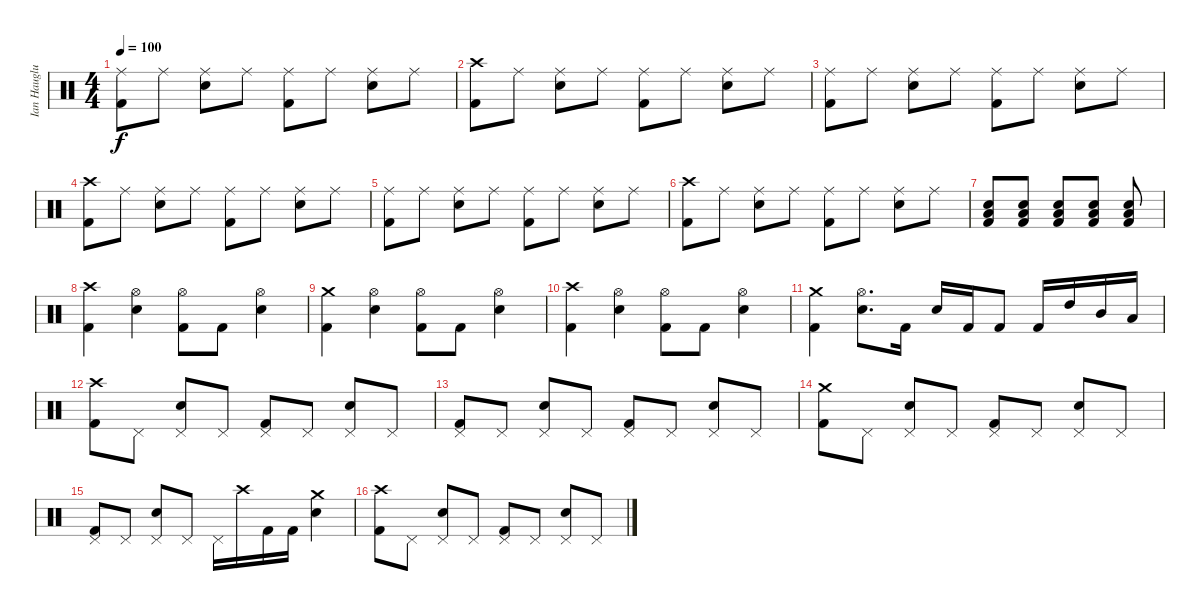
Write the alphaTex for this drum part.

\track ("Ian Hauglund" "Ian Hauglu") {instrument percussion}
\staff {score}
\articulation defaults
\ts (4 4)
\tempo 100
\clef neutral
\ks c
("Kick (hit) 2" "Ride (middle)").8{dy f} "Ride (middle)".8 ("Electric Snare (hit)" "Ride (middle)").8 "Ride (middle)".8 ("Kick (hit) 2" "Ride (middle)").8 "Ride (middle)".8 ("Electric Snare (hit)" "Ride (middle)").8 "Ride (middle)".8 |
("Kick (hit) 2" "Crash high (hit)").8 "Ride (middle)".8 ("Electric Snare (hit)" "Ride (middle)").8 "Ride (middle)".8 ("Kick (hit) 2" "Ride (middle)").8 "Ride (middle)".8 ("Electric Snare (hit)" "Ride (middle)").8 "Ride (middle)".8 |
("Kick (hit) 2" "Ride (middle)").8 "Ride (middle)".8 ("Electric Snare (hit)" "Ride (middle)").8 "Ride (middle)".8 ("Kick (hit) 2" "Ride (middle)").8 "Ride (middle)".8 ("Electric Snare (hit)" "Ride (middle)").8 "Ride (middle)".8 |
("Kick (hit) 2" "Crash high (hit)").8 "Ride (middle)".8 ("Electric Snare (hit)" "Ride (middle)").8 "Ride (middle)".8 ("Kick (hit) 2" "Ride (middle)").8 "Ride (middle)".8 ("Electric Snare (hit)" "Ride (middle)").8 "Ride (middle)".8 |
("Kick (hit) 2" "Ride (middle)").8 "Ride (middle)".8 ("Electric Snare (hit)" "Ride (middle)").8 "Ride (middle)".8 ("Kick (hit) 2" "Ride (middle)").8 "Ride (middle)".8 ("Electric Snare (hit)" "Ride (middle)").8 "Ride (middle)".8 |
("Kick (hit) 2" "Crash high (hit)").8 "Ride (middle)".8 ("Electric Snare (hit)" "Ride (middle)").8 "Ride (middle)".8 ("Kick (hit) 2" "Ride (middle)").8 "Ride (middle)".8 ("Electric Snare (hit)" "Ride (middle)").8 "Ride (middle)".8 |
("Electric Snare (hit)" "Kick (hit) 2" "Low Floor Tom (hit)").8 ("Electric Snare (hit)" "Kick (hit) 2" "Low Floor Tom (hit)").8 ("Electric Snare (hit)" "Kick (hit) 2" "Low Floor Tom (hit)").8 ("Electric Snare (hit)" "Kick (hit) 2" "Low Floor Tom (hit)").8 ("Electric Snare (hit)" "Kick (hit) 2" "Low Floor Tom (hit)").8 |
("Kick (hit) 2" "Crash high (hit)").4 ("Electric Snare (hit)" "Hi-Hat (open)").4 ("Kick (hit) 2" "Hi-Hat (open)").8 "Kick (hit) 2".8 ("Electric Snare (hit)" "Hi-Hat (open)").4 |
("Kick (hit) 2" "Crash medium (hit)").4 ("Electric Snare (hit)" "Hi-Hat (open)").4 ("Kick (hit) 2" "Hi-Hat (open)").8 "Kick (hit) 2".8 ("Electric Snare (hit)" "Hi-Hat (open)").4 |
("Kick (hit) 2" "Crash high (hit)").4 ("Electric Snare (hit)" "Hi-Hat (open)").4 ("Kick (hit) 2" "Hi-Hat (open)").8 "Kick (hit) 2".8 ("Electric Snare (hit)" "Hi-Hat (open)").4 |
("Kick (hit) 2" "Crash medium (hit)").4 ("Electric Snare (hit)" "Hi-Hat (open)").8{d} "Kick (hit) 2".16 "Electric Snare (hit)".16 "Kick (hit) 2".16 "Kick (hit) 2".8 "Kick (hit) 2".16 "High Tom (hit)".16 "Mid Tom (hit)".16 "Low Tom (hit)".16 |
("Kick (hit) 2" "Crash high (hit)").8 "Pedal Hi-Hat (hit)".8 ("Electric Snare (hit)" "Pedal Hi-Hat (hit)").8 "Pedal Hi-Hat (hit)".8 ("Kick (hit) 2" "Pedal Hi-Hat (hit)").8 "Pedal Hi-Hat (hit)".8 ("Electric Snare (hit)" "Pedal Hi-Hat (hit)").8 "Pedal Hi-Hat (hit)".8 |
("Kick (hit) 2" "Pedal Hi-Hat (hit)").8 "Pedal Hi-Hat (hit)".8 ("Electric Snare (hit)" "Pedal Hi-Hat (hit)").8 "Pedal Hi-Hat (hit)".8 ("Kick (hit) 2" "Pedal Hi-Hat (hit)").8 "Pedal Hi-Hat (hit)".8 ("Electric Snare (hit)" "Pedal Hi-Hat (hit)").8 "Pedal Hi-Hat (hit)".8 |
("Kick (hit) 2" "Crash medium (hit)").8 "Pedal Hi-Hat (hit)".8 ("Electric Snare (hit)" "Pedal Hi-Hat (hit)").8 "Pedal Hi-Hat (hit)".8 ("Kick (hit) 2" "Pedal Hi-Hat (hit)").8 "Pedal Hi-Hat (hit)".8 ("Electric Snare (hit)" "Pedal Hi-Hat (hit)").8 "Pedal Hi-Hat (hit)".8 |
("Kick (hit) 2" "Pedal Hi-Hat (hit)").8 "Pedal Hi-Hat (hit)".8 ("Electric Snare (hit)" "Pedal Hi-Hat (hit)").8 "Pedal Hi-Hat (hit)".8 "Pedal Hi-Hat (hit)".16 "Crash high (hit)".16 "Kick (hit) 2".16 "Kick (hit) 2".16 ("Electric Snare (hit)" "Crash medium (hit)").4 |
("Kick (hit) 2" "Crash high (hit)").8 "Pedal Hi-Hat (hit)".8 ("Electric Snare (hit)" "Pedal Hi-Hat (hit)").8 "Pedal Hi-Hat (hit)".8 ("Kick (hit) 2" "Pedal Hi-Hat (hit)").8 "Pedal Hi-Hat (hit)".8 ("Electric Snare (hit)" "Pedal Hi-Hat (hit)").8 "Pedal Hi-Hat (hit)".8
